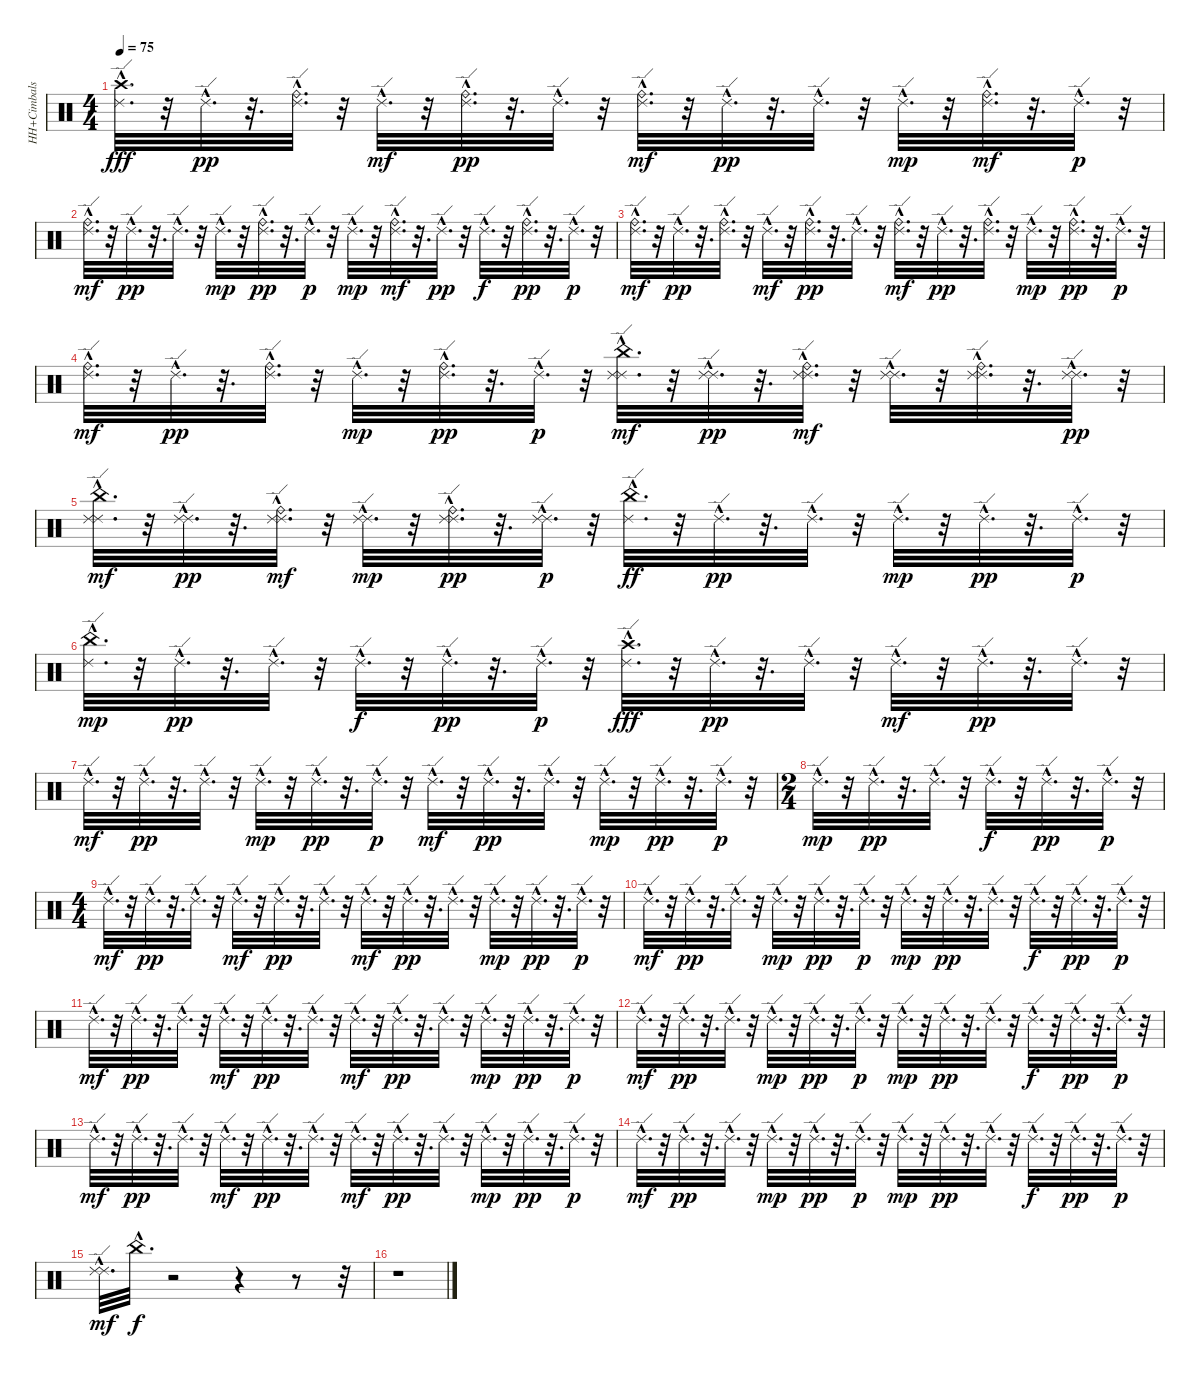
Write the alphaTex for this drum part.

\track ("HH+Cimbals" "HH+Cimbals") {instrument percussion}
\staff {score}
\articulation defaults
\ts (4 4)
\tempo 75
\clef neutral
\ks c
("Ride (edge) 2"{hac} "Crash high (hit)"{hac}).32{d dy fff} r.32 "Ride (edge) 2"{hac}.32{d dy pp} r.32{d} ("Ride (edge) 2"{hac} "Ride (bell)"{hac}).32{d} r.32 "Ride (edge) 2"{hac}.32{d dy mf} r.32 ("Ride (edge) 2"{hac} "Ride (bell)"{hac}).32{d dy pp} r.32{d} "Ride (edge) 2"{hac}.32{d} r.32 ("Ride (edge) 2"{hac} "Ride (bell)"{hac}).32{d dy mf} r.32 "Ride (edge) 2"{hac}.32{d dy pp} r.32{d} "Ride (edge) 2"{hac}.32{d} r.32 "Ride (edge) 2"{hac}.32{d dy mp} r.32 ("Ride (edge) 2"{hac} "Ride (bell)"{hac}).32{d dy mf} r.32{d} "Ride (edge) 2"{hac}.32{d dy p} r.32 |
("Ride (edge) 2"{hac} "Ride (bell)"{hac}).32{d dy mf} r.32 "Ride (edge) 2"{hac}.32{d dy pp} r.32{d} "Ride (edge) 2"{hac}.32{d} r.32 "Ride (edge) 2"{hac}.32{d dy mp} r.32 ("Ride (bell)"{hac} "Ride (edge) 2"{hac}).32{d dy pp} r.32{d} "Ride (edge) 2"{hac}.32{d dy p} r.32 "Ride (edge) 2"{hac}.32{d dy mp} r.32 ("Ride (edge) 2"{hac} "Ride (bell)"{hac}).32{d dy mf} r.32{d} "Ride (edge) 2"{hac}.32{d dy pp} r.32 "Ride (edge) 2"{hac}.32{d dy f} r.32 ("Ride (bell)"{hac} "Ride (edge) 2"{hac}).32{d dy pp} r.32{d} "Ride (edge) 2"{hac}.32{d dy p} r.32 |
("Ride (edge) 2"{hac} "Ride (bell)"{hac}).32{d dy mf} r.32 "Ride (edge) 2"{hac}.32{d dy pp} r.32{d} ("Ride (bell)"{hac} "Ride (edge) 2"{hac}).32{d} r.32 "Ride (edge) 2"{hac}.32{d dy mf} r.32 ("Ride (bell)"{hac} "Ride (edge) 2"{hac}).32{d dy pp} r.32{d} "Ride (edge) 2"{hac}.32{d} r.32 ("Ride (edge) 2"{hac} "Ride (bell)"{hac}).32{d dy mf} r.32 "Ride (edge) 2"{hac}.32{d dy pp} r.32{d} ("Ride (bell)"{hac} "Ride (edge) 2"{hac}).32{d} r.32 "Ride (edge) 2"{hac}.32{d dy mp} r.32 ("Ride (bell)"{hac} "Ride (edge) 2"{hac}).32{d dy pp} r.32{d} "Ride (edge) 2"{hac}.32{d dy p} r.32 |
("Ride (bell)"{hac} "Ride (edge) 2"{hac}).32{d dy mf} r.32 "Ride (edge) 2"{hac}.32{d dy pp} r.32{d} ("Ride (bell)"{hac} "Ride (edge) 2"{hac}).32{d} r.32 "Ride (edge) 2"{hac}.32{d dy mp} r.32 ("Ride (edge) 2"{hac} "Ride (bell)"{hac}).32{d dy pp} r.32{d} "Ride (edge) 2"{hac}.32{d dy p} r.32 ("China (hit)"{hac} "Ride (edge) 2"{hac} "Ride (edge) 2"{hac}).32{d dy mf} r.32 ("Ride (edge) 2"{hac} "Ride (edge) 2"{hac}).32{d dy pp} r.32{d} ("Ride (edge) 2"{hac} "Ride (edge) 2"{hac} "Ride (bell)"{hac}).32{d dy mf} r.32 ("Ride (edge) 2"{hac} "Ride (edge) 2"{hac}).32{d} r.32 ("Ride (edge) 2"{hac} "Ride (edge) 2"{hac} "Ride (bell)"{hac}).32{d} r.32{d} ("Ride (edge) 2"{hac} "Ride (edge) 2"{hac}).32{d dy pp} r.32 |
("Ride (edge) 2"{hac} "Ride (edge) 2"{hac} "China (hit)"{hac}).32{d dy mf} r.32 ("Ride (edge) 2"{hac} "Ride (edge) 2"{hac}).32{d dy pp} r.32{d} ("Ride (edge) 2"{hac} "Ride (edge) 2"{hac} "Ride (bell)"{hac}).32{d dy mf} r.32 ("Ride (edge) 2"{hac} "Ride (edge) 2"{hac}).32{d dy mp} r.32 ("Ride (edge) 2"{hac} "Ride (edge) 2"{hac} "Ride (bell)"{hac}).32{d dy pp} r.32{d} ("Ride (edge) 2"{hac} "Ride (edge) 2"{hac}).32{d dy p} r.32 ("Ride (edge) 2"{hac} "China (hit)"{hac}).32{d dy ff} r.32 "Ride (edge) 2"{hac}.32{d dy pp} r.32{d} "Ride (edge) 2"{hac}.32{d} r.32 "Ride (edge) 2"{hac}.32{d dy mp} r.32 "Ride (edge) 2"{hac}.32{d dy pp} r.32{d} "Ride (edge) 2"{hac}.32{d dy p} r.32 |
("Ride (edge) 2"{hac} "China (hit)"{hac}).32{d dy mp} r.32 "Ride (edge) 2"{hac}.32{d dy pp} r.32{d} "Ride (edge) 2"{hac}.32{d} r.32 "Ride (edge) 2"{hac}.32{d dy f} r.32 "Ride (edge) 2"{hac}.32{d dy pp} r.32{d} "Ride (edge) 2"{hac}.32{d dy p} r.32 ("Ride (edge) 2"{hac} "Crash high (hit)"{hac}).32{d dy fff} r.32 "Ride (edge) 2"{hac}.32{d dy pp} r.32{d} "Ride (edge) 2"{hac}.32{d} r.32 "Ride (edge) 2"{hac}.32{d dy mf} r.32 "Ride (edge) 2"{hac}.32{d dy pp} r.32{d} "Ride (edge) 2"{hac}.32{d} r.32 |
"Ride (edge) 2"{hac}.32{d dy mf} r.32 "Ride (edge) 2"{hac}.32{d dy pp} r.32{d} "Ride (edge) 2"{hac}.32{d} r.32 "Ride (edge) 2"{hac}.32{d dy mp} r.32 "Ride (edge) 2"{hac}.32{d dy pp} r.32{d} "Ride (edge) 2"{hac}.32{d dy p} r.32 "Ride (edge) 2"{hac}.32{d dy mf} r.32 "Ride (edge) 2"{hac}.32{d dy pp} r.32{d} "Ride (edge) 2"{hac}.32{d} r.32 "Ride (edge) 2"{hac}.32{d dy mp} r.32 "Ride (edge) 2"{hac}.32{d dy pp} r.32{d} "Ride (edge) 2"{hac}.32{d dy p} r.32 |
\ts (2 4)
"Ride (edge) 2"{hac}.32{d dy mp} r.32 "Ride (edge) 2"{hac}.32{d dy pp} r.32{d} "Ride (edge) 2"{hac}.32{d} r.32 "Ride (edge) 2"{hac}.32{d dy f} r.32 "Ride (edge) 2"{hac}.32{d dy pp} r.32{d} "Ride (edge) 2"{hac}.32{d dy p} r.32 |
\ts (4 4)
"Ride (edge) 2"{hac}.32{d dy mf} r.32 "Ride (edge) 2"{hac}.32{d dy pp} r.32{d} "Ride (edge) 2"{hac}.32{d} r.32 "Ride (edge) 2"{hac}.32{d dy mf} r.32 "Ride (edge) 2"{hac}.32{d dy pp} r.32{d} "Ride (edge) 2"{hac}.32{d} r.32 "Ride (edge) 2"{hac}.32{d dy mf} r.32 "Ride (edge) 2"{hac}.32{d dy pp} r.32{d} "Ride (edge) 2"{hac}.32{d} r.32 "Ride (edge) 2"{hac}.32{d dy mp} r.32 "Ride (edge) 2"{hac}.32{d dy pp} r.32{d} "Ride (edge) 2"{hac}.32{d dy p} r.32 |
"Ride (edge) 2"{hac}.32{d dy mf} r.32 "Ride (edge) 2"{hac}.32{d dy pp} r.32{d} "Ride (edge) 2"{hac}.32{d} r.32 "Ride (edge) 2"{hac}.32{d dy mp} r.32 "Ride (edge) 2"{hac}.32{d dy pp} r.32{d} "Ride (edge) 2"{hac}.32{d dy p} r.32 "Ride (edge) 2"{hac}.32{d dy mp} r.32 "Ride (edge) 2"{hac}.32{d dy pp} r.32{d} "Ride (edge) 2"{hac}.32{d} r.32 "Ride (edge) 2"{hac}.32{d dy f} r.32 "Ride (edge) 2"{hac}.32{d dy pp} r.32{d} "Ride (edge) 2"{hac}.32{d dy p} r.32 |
"Ride (edge) 2"{hac}.32{d dy mf} r.32 "Ride (edge) 2"{hac}.32{d dy pp} r.32{d} "Ride (edge) 2"{hac}.32{d} r.32 "Ride (edge) 2"{hac}.32{d dy mf} r.32 "Ride (edge) 2"{hac}.32{d dy pp} r.32{d} "Ride (edge) 2"{hac}.32{d} r.32 "Ride (edge) 2"{hac}.32{d dy mf} r.32 "Ride (edge) 2"{hac}.32{d dy pp} r.32{d} "Ride (edge) 2"{hac}.32{d} r.32 "Ride (edge) 2"{hac}.32{d dy mp} r.32 "Ride (edge) 2"{hac}.32{d dy pp} r.32{d} "Ride (edge) 2"{hac}.32{d dy p} r.32 |
"Ride (edge) 2"{hac}.32{d dy mf} r.32 "Ride (edge) 2"{hac}.32{d dy pp} r.32{d} "Ride (edge) 2"{hac}.32{d} r.32 "Ride (edge) 2"{hac}.32{d dy mp} r.32 "Ride (edge) 2"{hac}.32{d dy pp} r.32{d} "Ride (edge) 2"{hac}.32{d dy p} r.32 "Ride (edge) 2"{hac}.32{d dy mp} r.32 "Ride (edge) 2"{hac}.32{d dy pp} r.32{d} "Ride (edge) 2"{hac}.32{d} r.32 "Ride (edge) 2"{hac}.32{d dy f} r.32 "Ride (edge) 2"{hac}.32{d dy pp} r.32{d} "Ride (edge) 2"{hac}.32{d dy p} r.32 |
"Ride (edge) 2"{hac}.32{d dy mf} r.32 "Ride (edge) 2"{hac}.32{d dy pp} r.32{d} "Ride (edge) 2"{hac}.32{d} r.32 "Ride (edge) 2"{hac}.32{d dy mf} r.32 "Ride (edge) 2"{hac}.32{d dy pp} r.32{d} "Ride (edge) 2"{hac}.32{d} r.32 "Ride (edge) 2"{hac}.32{d dy mf} r.32 "Ride (edge) 2"{hac}.32{d dy pp} r.32{d} "Ride (edge) 2"{hac}.32{d} r.32 "Ride (edge) 2"{hac}.32{d dy mp} r.32 "Ride (edge) 2"{hac}.32{d dy pp} r.32{d} "Ride (edge) 2"{hac}.32{d dy p} r.32 |
"Ride (edge) 2"{hac}.32{d dy mf} r.32 "Ride (edge) 2"{hac}.32{d dy pp} r.32{d} "Ride (edge) 2"{hac}.32{d} r.32 "Ride (edge) 2"{hac}.32{d dy mp} r.32 "Ride (edge) 2"{hac}.32{d dy pp} r.32{d} "Ride (edge) 2"{hac}.32{d dy p} r.32 "Ride (edge) 2"{hac}.32{d dy mp} r.32 "Ride (edge) 2"{hac}.32{d dy pp} r.32{d} "Ride (edge) 2"{hac}.32{d} r.32 "Ride (edge) 2"{hac}.32{d dy f} r.32 "Ride (edge) 2"{hac}.32{d dy pp} r.32{d} "Ride (edge) 2"{hac}.32{d dy p} r.32 |
("Ride (edge) 2"{hac} "Ride (edge) 2"{hac}).32{d dy mf} "China (hit)"{hac}.32{d dy f} r.2 r.4 r.8 r.32 |
r.1
